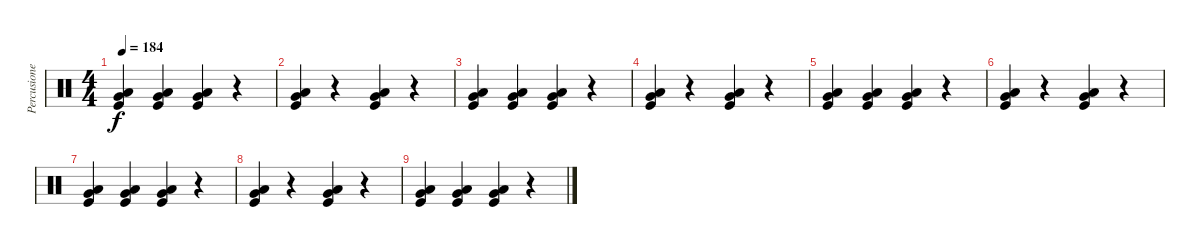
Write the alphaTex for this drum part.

\track ("Percusiones" "Percusione") {instrument percussion}
\staff {score}
\articulation defaults
\ts (4 4)
\tempo 184
\clef neutral
\ks c
("Low Floor Tom (hit)" "Very Low Tom (hit)" "Kick (hit)").4{dy f} ("Low Floor Tom (hit)" "Very Low Tom (hit)" "Kick (hit)").4 ("Low Floor Tom (hit)" "Very Low Tom (hit)" "Kick (hit)").4 r.4 |
("Low Floor Tom (hit)" "Very Low Tom (hit)" "Kick (hit)").4 r.4 ("Low Floor Tom (hit)" "Very Low Tom (hit)" "Kick (hit)").4 r.4 |
("Low Floor Tom (hit)" "Very Low Tom (hit)" "Kick (hit)").4 ("Low Floor Tom (hit)" "Very Low Tom (hit)" "Kick (hit)").4 ("Low Floor Tom (hit)" "Very Low Tom (hit)" "Kick (hit)").4 r.4 |
("Low Floor Tom (hit)" "Very Low Tom (hit)" "Kick (hit)").4 r.4 ("Low Floor Tom (hit)" "Very Low Tom (hit)" "Kick (hit)").4 r.4 |
("Low Floor Tom (hit)" "Very Low Tom (hit)" "Kick (hit)").4 ("Low Floor Tom (hit)" "Very Low Tom (hit)" "Kick (hit)").4 ("Low Floor Tom (hit)" "Very Low Tom (hit)" "Kick (hit)").4 r.4 |
("Low Floor Tom (hit)" "Very Low Tom (hit)" "Kick (hit)").4 r.4 ("Low Floor Tom (hit)" "Very Low Tom (hit)" "Kick (hit)").4 r.4 |
("Low Floor Tom (hit)" "Very Low Tom (hit)" "Kick (hit)").4 ("Low Floor Tom (hit)" "Very Low Tom (hit)" "Kick (hit)").4 ("Low Floor Tom (hit)" "Very Low Tom (hit)" "Kick (hit)").4 r.4 |
("Low Floor Tom (hit)" "Very Low Tom (hit)" "Kick (hit)").4 r.4 ("Low Floor Tom (hit)" "Very Low Tom (hit)" "Kick (hit)").4 r.4 |
("Low Floor Tom (hit)" "Very Low Tom (hit)" "Kick (hit)").4 ("Low Floor Tom (hit)" "Very Low Tom (hit)" "Kick (hit)").4 ("Low Floor Tom (hit)" "Very Low Tom (hit)" "Kick (hit)").4 r.4
